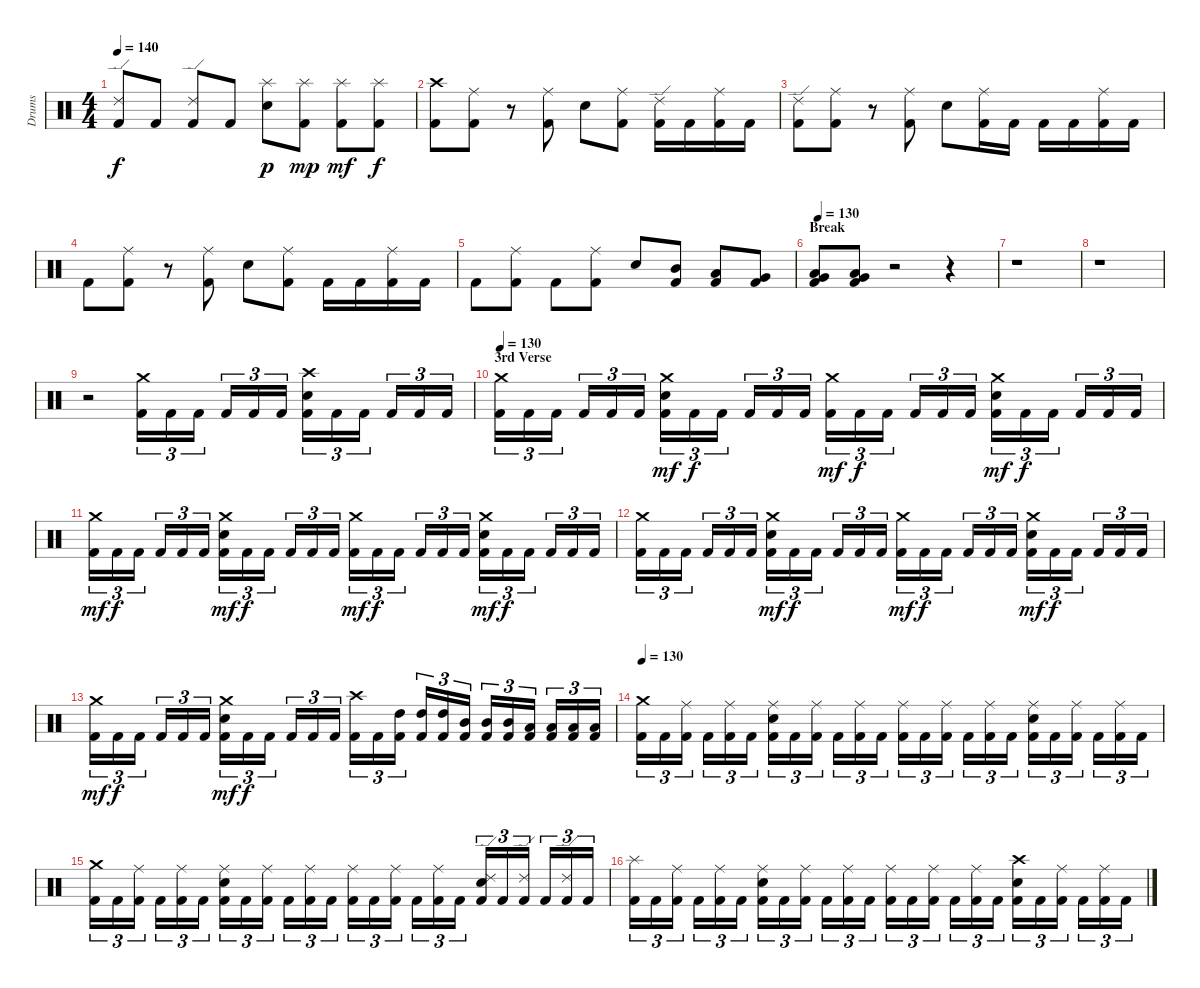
\track ("Drums" "Drums") {instrument percussion}
\staff {score}
\articulation defaults
\ts (4 4)
\tempo 140
\clef neutral
\ks c
("Kick (hit) 2" "Ride (edge) 2").8{dy f} "Kick (hit) 2".8 ("Kick (hit) 2" "Ride (edge) 2").8 "Kick (hit) 2".8 ("Electric Snare (hit)" "Splash (hit)").8{dy p} ("Kick (hit) 2" "Splash (hit)").8{dy mp} ("Kick (hit) 2" "Splash (hit)").8{dy mf} ("Kick (hit) 2" "Splash (hit)").8{dy f} |
("Kick (hit) 2" "Crash high (hit)").8 ("Kick (hit) 2" "Ride (middle)").8 r.8 ("Kick (hit) 2" "Ride (middle)").8 "Electric Snare (hit)".8 ("Kick (hit) 2" "Ride (middle)").8 ("Kick (hit) 2" "Ride (edge) 2").16 "Kick (hit) 2".16 ("Kick (hit) 2" "Ride (middle)").16 "Kick (hit) 2".16 |
("Kick (hit) 2" "Ride (edge) 2").8 ("Kick (hit) 2" "Ride (middle)").8 r.8 ("Kick (hit) 2" "Ride (middle)").8 "Electric Snare (hit)".8 ("Kick (hit) 2" "Ride (middle)").16 "Kick (hit) 2".16 "Kick (hit) 2".16 "Kick (hit) 2".16 ("Kick (hit) 2" "Ride (middle)").16 "Kick (hit) 2".16 |
"Kick (hit) 2".8 ("Kick (hit) 2" "Ride (middle)").8 r.8 ("Kick (hit) 2" "Ride (middle)").8 "Electric Snare (hit)".8 ("Kick (hit) 2" "Ride (middle)").8 "Kick (hit) 2".16 "Kick (hit) 2".16 ("Kick (hit) 2" "Ride (middle)").16 "Kick (hit) 2".16 |
"Kick (hit) 2".8 ("Kick (hit) 2" "Ride (middle)").8 "Kick (hit) 2".8 ("Kick (hit) 2" "Ride (middle)").8 "Electric Snare (hit)".8 ("Kick (hit) 2" "Mid Tom (hit)").8 ("Kick (hit) 2" "Low Tom (hit)").8 ("Kick (hit) 2" "Very Low Tom (hit)").8 |
\section ("" "Break")
\tempo 130
("Kick (hit) 2" "Low Tom (hit)" "Very Low Tom (hit)").8 ("Kick (hit) 2" "Low Tom (hit)" "Very Low Tom (hit)").8 r.2 r.4 |
r.1 |
r.1 |
r.2 ("Kick (hit) 2" "Crash medium (hit)").16{tu (3 2)} "Kick (hit) 2".16{tu (3 2)} "Kick (hit) 2".16{tu (3 2)} "Kick (hit) 2".16{tu (3 2)} "Kick (hit) 2".16{tu (3 2)} "Kick (hit) 2".16{tu (3 2)} ("Kick (hit) 2" "Electric Snare (hit)" "Crash high (hit)").16{tu (3 2)} "Kick (hit) 2".16{tu (3 2)} "Kick (hit) 2".16{tu (3 2)} "Kick (hit) 2".16{tu (3 2)} "Kick (hit) 2".16{tu (3 2)} "Kick (hit) 2".16{tu (3 2)} |
\section ("" "3rd Verse")
\tempo 130
("Kick (hit) 2" "Crash medium (hit)").16{tu (3 2)} "Kick (hit) 2".16{tu (3 2)} "Kick (hit) 2".16{tu (3 2)} "Kick (hit) 2".16{tu (3 2)} "Kick (hit) 2".16{tu (3 2)} "Kick (hit) 2".16{tu (3 2)} ("Kick (hit) 2" "Electric Snare (hit)" "Crash medium (hit)").16{tu (3 2) dy mf} "Kick (hit) 2".16{tu (3 2) dy f} "Kick (hit) 2".16{tu (3 2)} "Kick (hit) 2".16{tu (3 2)} "Kick (hit) 2".16{tu (3 2)} "Kick (hit) 2".16{tu (3 2)} ("Kick (hit) 2" "Crash medium (hit)").16{tu (3 2) dy mf} "Kick (hit) 2".16{tu (3 2) dy f} "Kick (hit) 2".16{tu (3 2)} "Kick (hit) 2".16{tu (3 2)} "Kick (hit) 2".16{tu (3 2)} "Kick (hit) 2".16{tu (3 2)} ("Kick (hit) 2" "Electric Snare (hit)" "Crash medium (hit)").16{tu (3 2) dy mf} "Kick (hit) 2".16{tu (3 2) dy f} "Kick (hit) 2".16{tu (3 2)} "Kick (hit) 2".16{tu (3 2)} "Kick (hit) 2".16{tu (3 2)} "Kick (hit) 2".16{tu (3 2)} |
("Kick (hit) 2" "Crash medium (hit)").16{tu (3 2) dy mf} "Kick (hit) 2".16{tu (3 2) dy f} "Kick (hit) 2".16{tu (3 2)} "Kick (hit) 2".16{tu (3 2)} "Kick (hit) 2".16{tu (3 2)} "Kick (hit) 2".16{tu (3 2)} ("Kick (hit) 2" "Electric Snare (hit)" "Crash medium (hit)").16{tu (3 2) dy mf} "Kick (hit) 2".16{tu (3 2) dy f} "Kick (hit) 2".16{tu (3 2)} "Kick (hit) 2".16{tu (3 2)} "Kick (hit) 2".16{tu (3 2)} "Kick (hit) 2".16{tu (3 2)} ("Kick (hit) 2" "Crash medium (hit)").16{tu (3 2) dy mf} "Kick (hit) 2".16{tu (3 2) dy f} "Kick (hit) 2".16{tu (3 2)} "Kick (hit) 2".16{tu (3 2)} "Kick (hit) 2".16{tu (3 2)} "Kick (hit) 2".16{tu (3 2)} ("Kick (hit) 2" "Electric Snare (hit)" "Crash medium (hit)").16{tu (3 2) dy mf} "Kick (hit) 2".16{tu (3 2) dy f} "Kick (hit) 2".16{tu (3 2)} "Kick (hit) 2".16{tu (3 2)} "Kick (hit) 2".16{tu (3 2)} "Kick (hit) 2".16{tu (3 2)} |
("Kick (hit) 2" "Crash medium (hit)").16{tu (3 2)} "Kick (hit) 2".16{tu (3 2)} "Kick (hit) 2".16{tu (3 2)} "Kick (hit) 2".16{tu (3 2)} "Kick (hit) 2".16{tu (3 2)} "Kick (hit) 2".16{tu (3 2)} ("Kick (hit) 2" "Electric Snare (hit)" "Crash medium (hit)").16{tu (3 2) dy mf} "Kick (hit) 2".16{tu (3 2) dy f} "Kick (hit) 2".16{tu (3 2)} "Kick (hit) 2".16{tu (3 2)} "Kick (hit) 2".16{tu (3 2)} "Kick (hit) 2".16{tu (3 2)} ("Kick (hit) 2" "Crash medium (hit)").16{tu (3 2) dy mf} "Kick (hit) 2".16{tu (3 2) dy f} "Kick (hit) 2".16{tu (3 2)} "Kick (hit) 2".16{tu (3 2)} "Kick (hit) 2".16{tu (3 2)} "Kick (hit) 2".16{tu (3 2)} ("Kick (hit) 2" "Electric Snare (hit)" "Crash medium (hit)").16{tu (3 2) dy mf} "Kick (hit) 2".16{tu (3 2) dy f} "Kick (hit) 2".16{tu (3 2)} "Kick (hit) 2".16{tu (3 2)} "Kick (hit) 2".16{tu (3 2)} "Kick (hit) 2".16{tu (3 2)} |
("Kick (hit) 2" "Crash medium (hit)").16{tu (3 2) dy mf} "Kick (hit) 2".16{tu (3 2) dy f} "Kick (hit) 2".16{tu (3 2)} "Kick (hit) 2".16{tu (3 2)} "Kick (hit) 2".16{tu (3 2)} "Kick (hit) 2".16{tu (3 2)} ("Kick (hit) 2" "Electric Snare (hit)" "Crash medium (hit)").16{tu (3 2) dy mf} "Kick (hit) 2".16{tu (3 2) dy f} "Kick (hit) 2".16{tu (3 2)} "Kick (hit) 2".16{tu (3 2)} "Kick (hit) 2".16{tu (3 2)} "Kick (hit) 2".16{tu (3 2)} ("Kick (hit) 2" "Crash high (hit)").16{tu (3 2)} "Kick (hit) 2".16{tu (3 2)} ("Kick (hit) 2" "High Tom (hit)").16{tu (3 2)} ("Kick (hit) 2" "High Tom (hit)").16{tu (3 2)} ("Kick (hit) 2" "High Tom (hit)").16{tu (3 2)} ("Kick (hit) 2" "Mid Tom (hit)").16{tu (3 2)} ("Kick (hit) 2" "Mid Tom (hit)").16{tu (3 2)} ("Kick (hit) 2" "Mid Tom (hit)").16{tu (3 2)} ("Kick (hit) 2" "Low Tom (hit)").16{tu (3 2)} ("Kick (hit) 2" "Low Tom (hit)").16{tu (3 2)} ("Kick (hit) 2" "Low Tom (hit)").16{tu (3 2)} ("Kick (hit) 2" "Low Tom (hit)").16{tu (3 2)} |
\tempo 130
("Kick (hit) 2" "Crash medium (hit)").16{tu (3 2)} "Kick (hit) 2".16{tu (3 2)} ("Kick (hit) 2" "Ride (middle)").16{tu (3 2)} "Kick (hit) 2".16{tu (3 2)} ("Kick (hit) 2" "Ride (middle)").16{tu (3 2)} "Kick (hit) 2".16{tu (3 2)} ("Kick (hit) 2" "Electric Snare (hit)" "Ride (middle)").16{tu (3 2)} "Kick (hit) 2".16{tu (3 2)} ("Kick (hit) 2" "Ride (middle)").16{tu (3 2)} "Kick (hit) 2".16{tu (3 2)} ("Kick (hit) 2" "Ride (middle)").16{tu (3 2)} "Kick (hit) 2".16{tu (3 2)} ("Kick (hit) 2" "Ride (middle)").16{tu (3 2)} "Kick (hit) 2".16{tu (3 2)} ("Kick (hit) 2" "Ride (middle)").16{tu (3 2)} "Kick (hit) 2".16{tu (3 2)} ("Kick (hit) 2" "Ride (middle)").16{tu (3 2)} "Kick (hit) 2".16{tu (3 2)} ("Kick (hit) 2" "Electric Snare (hit)" "Ride (middle)").16{tu (3 2)} "Kick (hit) 2".16{tu (3 2)} ("Kick (hit) 2" "Ride (middle)").16{tu (3 2)} "Kick (hit) 2".16{tu (3 2)} ("Kick (hit) 2" "Ride (middle)").16{tu (3 2)} "Kick (hit) 2".16{tu (3 2)} |
("Kick (hit) 2" "Crash medium (hit)").16{tu (3 2)} "Kick (hit) 2".16{tu (3 2)} ("Kick (hit) 2" "Ride (middle)").16{tu (3 2)} "Kick (hit) 2".16{tu (3 2)} ("Kick (hit) 2" "Ride (middle)").16{tu (3 2)} "Kick (hit) 2".16{tu (3 2)} ("Kick (hit) 2" "Electric Snare (hit)" "Ride (middle)").16{tu (3 2)} "Kick (hit) 2".16{tu (3 2)} ("Kick (hit) 2" "Ride (middle)").16{tu (3 2)} "Kick (hit) 2".16{tu (3 2)} ("Kick (hit) 2" "Ride (middle)").16{tu (3 2)} "Kick (hit) 2".16{tu (3 2)} ("Kick (hit) 2" "Ride (middle)").16{tu (3 2)} "Kick (hit) 2".16{tu (3 2)} ("Kick (hit) 2" "Ride (middle)").16{tu (3 2)} "Kick (hit) 2".16{tu (3 2)} ("Kick (hit) 2" "Ride (middle)").16{tu (3 2)} "Kick (hit) 2".16{tu (3 2)} ("Kick (hit) 2" "Electric Snare (hit)" "Ride (edge) 2").16{tu (3 2)} "Kick (hit) 2".16{tu (3 2)} ("Kick (hit) 2" "Ride (edge) 2").16{tu (3 2)} "Kick (hit) 2".16{tu (3 2)} ("Kick (hit) 2" "Ride (edge) 2").16{tu (3 2)} "Kick (hit) 2".16{tu (3 2)} |
("Kick (hit) 2" "Splash (hit)").16{tu (3 2)} "Kick (hit) 2".16{tu (3 2)} ("Kick (hit) 2" "Ride (middle)").16{tu (3 2)} "Kick (hit) 2".16{tu (3 2)} ("Kick (hit) 2" "Ride (middle)").16{tu (3 2)} "Kick (hit) 2".16{tu (3 2)} ("Kick (hit) 2" "Electric Snare (hit)" "Ride (middle)").16{tu (3 2)} "Kick (hit) 2".16{tu (3 2)} ("Kick (hit) 2" "Ride (middle)").16{tu (3 2)} "Kick (hit) 2".16{tu (3 2)} ("Kick (hit) 2" "Ride (middle)").16{tu (3 2)} "Kick (hit) 2".16{tu (3 2)} ("Kick (hit) 2" "Ride (middle)").16{tu (3 2)} "Kick (hit) 2".16{tu (3 2)} ("Kick (hit) 2" "Ride (middle)").16{tu (3 2)} "Kick (hit) 2".16{tu (3 2)} ("Kick (hit) 2" "Ride (middle)").16{tu (3 2)} "Kick (hit) 2".16{tu (3 2)} ("Kick (hit) 2" "Electric Snare (hit)" "Crash high (hit)").16{tu (3 2)} "Kick (hit) 2".16{tu (3 2)} ("Kick (hit) 2" "Ride (middle)").16{tu (3 2)} "Kick (hit) 2".16{tu (3 2)} ("Kick (hit) 2" "Ride (middle)").16{tu (3 2)} "Kick (hit) 2".16{tu (3 2)}
